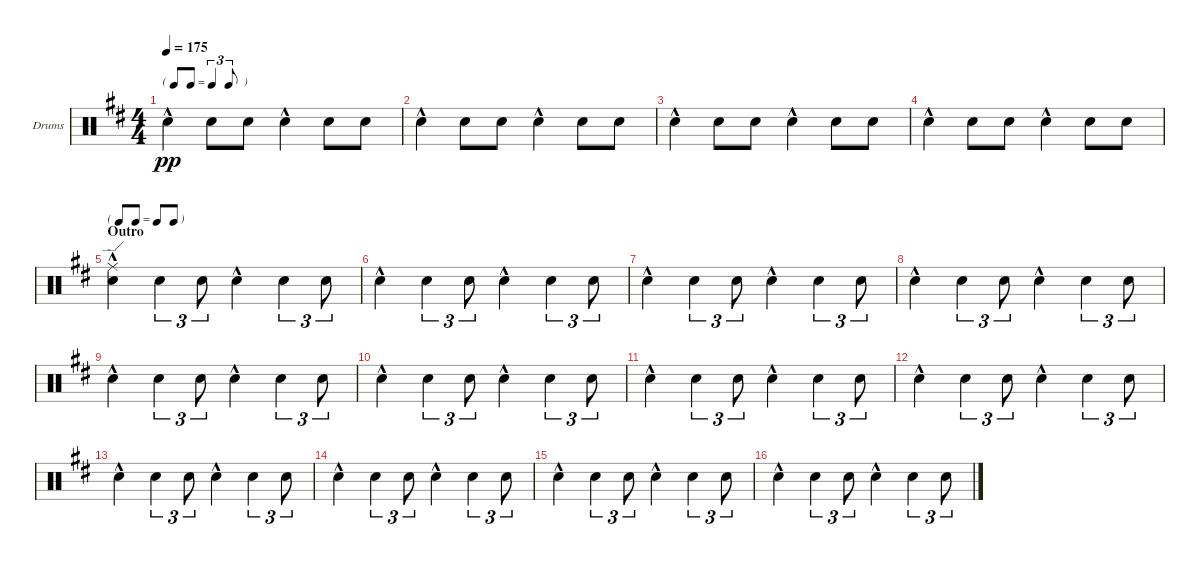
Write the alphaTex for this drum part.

\defaultSystemsLayout 4
\bracketExtendMode groupsimilarinstruments
\firstSystemTrackNameOrientation horizontal
\otherSystemsTrackNameOrientation horizontal
\track ("Drumkit" "Drums") {instrument percussion}
\staff {score}
\articulation defaults
\ts (4 4)
\tf triplet8th
\tempo 175
\clef neutral
\ks d "Snare (hit) 2"{hac}.4{dy pp} "Snare (hit) 2".8 "Snare (hit) 2".8 "Snare (hit) 2"{hac}.4 "Snare (hit) 2".8 "Snare (hit) 2".8
|
"Snare (hit) 2"{hac}.4 "Snare (hit) 2".8 "Snare (hit) 2".8 "Snare (hit) 2"{hac}.4 "Snare (hit) 2".8 "Snare (hit) 2".8 |
"Snare (hit) 2"{hac}.4 "Snare (hit) 2".8 "Snare (hit) 2".8 "Snare (hit) 2"{hac}.4 "Snare (hit) 2".8 "Snare (hit) 2".8 |
"Snare (hit) 2"{hac}.4 "Snare (hit) 2".8 "Snare (hit) 2".8 "Snare (hit) 2"{hac}.4 "Snare (hit) 2".8 "Snare (hit) 2".8 |
\tf none
\section ("" "Outro")
("Snare (hit) 2"{hac} "Ride (edge)").4 "Snare (hit) 2".4{tu (3 2)} "Snare (hit) 2".8{tu (3 2)} "Snare (hit) 2"{hac}.4 "Snare (hit) 2".4{tu (3 2)} "Snare (hit) 2".8{tu (3 2)} |
"Snare (hit) 2"{hac}.4 "Snare (hit) 2".4{tu (3 2)} "Snare (hit) 2".8{tu (3 2)} "Snare (hit) 2"{hac}.4 "Snare (hit) 2".4{tu (3 2)} "Snare (hit) 2".8{tu (3 2)} |
"Snare (hit) 2"{hac}.4 "Snare (hit) 2".4{tu (3 2)} "Snare (hit) 2".8{tu (3 2)} "Snare (hit) 2"{hac}.4 "Snare (hit) 2".4{tu (3 2)} "Snare (hit) 2".8{tu (3 2)} |
"Snare (hit) 2"{hac}.4 "Snare (hit) 2".4{tu (3 2)} "Snare (hit) 2".8{tu (3 2)} "Snare (hit) 2"{hac}.4 "Snare (hit) 2".4{tu (3 2)} "Snare (hit) 2".8{tu (3 2)} |
"Snare (hit) 2"{hac}.4 "Snare (hit) 2".4{tu (3 2)} "Snare (hit) 2".8{tu (3 2)} "Snare (hit) 2"{hac}.4 "Snare (hit) 2".4{tu (3 2)} "Snare (hit) 2".8{tu (3 2)} |
"Snare (hit) 2"{hac}.4 "Snare (hit) 2".4{tu (3 2)} "Snare (hit) 2".8{tu (3 2)} "Snare (hit) 2"{hac}.4 "Snare (hit) 2".4{tu (3 2)} "Snare (hit) 2".8{tu (3 2)} |
"Snare (hit) 2"{hac}.4 "Snare (hit) 2".4{tu (3 2)} "Snare (hit) 2".8{tu (3 2)} "Snare (hit) 2"{hac}.4 "Snare (hit) 2".4{tu (3 2)} "Snare (hit) 2".8{tu (3 2)} |
"Snare (hit) 2"{hac}.4 "Snare (hit) 2".4{tu (3 2)} "Snare (hit) 2".8{tu (3 2)} "Snare (hit) 2"{hac}.4 "Snare (hit) 2".4{tu (3 2)} "Snare (hit) 2".8{tu (3 2)} |
"Snare (hit) 2"{hac}.4 "Snare (hit) 2".4{tu (3 2)} "Snare (hit) 2".8{tu (3 2)} "Snare (hit) 2"{hac}.4 "Snare (hit) 2".4{tu (3 2)} "Snare (hit) 2".8{tu (3 2)} |
"Snare (hit) 2"{hac}.4 "Snare (hit) 2".4{tu (3 2)} "Snare (hit) 2".8{tu (3 2)} "Snare (hit) 2"{hac}.4 "Snare (hit) 2".4{tu (3 2)} "Snare (hit) 2".8{tu (3 2)} |
"Snare (hit) 2"{hac}.4 "Snare (hit) 2".4{tu (3 2)} "Snare (hit) 2".8{tu (3 2)} "Snare (hit) 2"{hac}.4 "Snare (hit) 2".4{tu (3 2)} "Snare (hit) 2".8{tu (3 2)} |
"Snare (hit) 2"{hac}.4 "Snare (hit) 2".4{tu (3 2)} "Snare (hit) 2".8{tu (3 2)} "Snare (hit) 2"{hac}.4 "Snare (hit) 2".4{tu (3 2)} "Snare (hit) 2".8{tu (3 2)}
